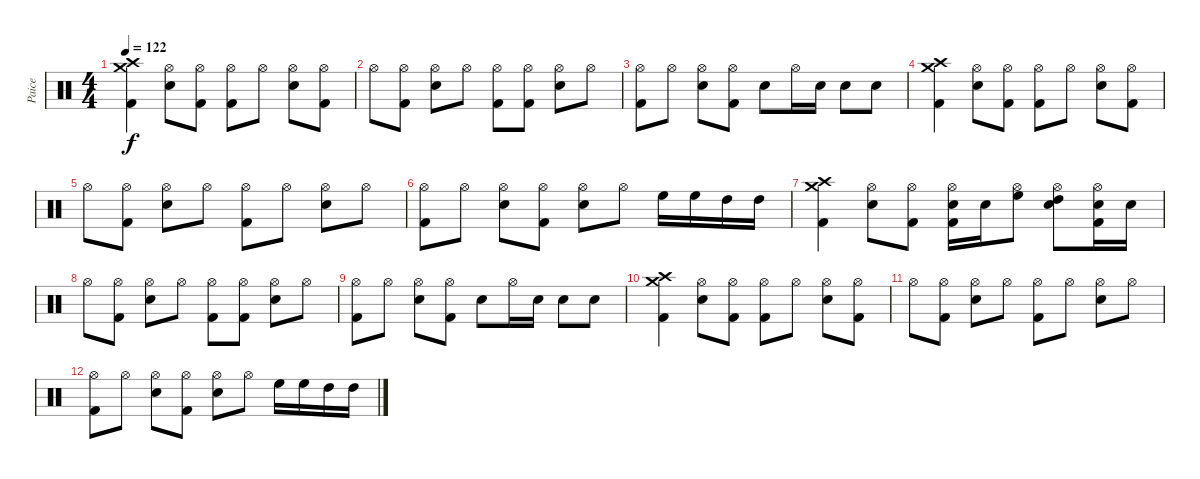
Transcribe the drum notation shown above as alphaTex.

\track ("Paice" "Paice") {instrument percussion}
\staff {score}
\articulation defaults
\ts (4 4)
\tempo 122
\clef neutral
\ks c
("Crash high (hit)" "Crash medium (hit)" "Kick (hit) 2").4{dy f} ("Hi-Hat (open)" "Electric Snare (hit)").8 ("Hi-Hat (open)" "Kick (hit) 2").8 ("Hi-Hat (open)" "Kick (hit) 2").8 "Hi-Hat (open)".8 ("Hi-Hat (open)" "Electric Snare (hit)").8 ("Hi-Hat (open)" "Kick (hit) 2").8 |
"Hi-Hat (open)".8 ("Hi-Hat (open)" "Kick (hit) 2").8 ("Hi-Hat (open)" "Electric Snare (hit)").8 "Hi-Hat (open)".8 ("Hi-Hat (open)" "Kick (hit) 2").8 ("Hi-Hat (open)" "Kick (hit) 2").8 ("Hi-Hat (open)" "Electric Snare (hit)").8 "Hi-Hat (open)".8 |
("Hi-Hat (open)" "Kick (hit) 2").8 "Hi-Hat (open)".8 ("Hi-Hat (open)" "Electric Snare (hit)").8 ("Hi-Hat (open)" "Kick (hit) 2").8 "Electric Snare (hit)".8 "Hi-Hat (open)".16 "Electric Snare (hit)".16 "Electric Snare (hit)".8 "Electric Snare (hit)".8 |
("Crash high (hit)" "Crash medium (hit)" "Kick (hit) 2").4 ("Hi-Hat (open)" "Electric Snare (hit)").8 ("Hi-Hat (open)" "Kick (hit) 2").8 ("Hi-Hat (open)" "Kick (hit) 2").8 "Hi-Hat (open)".8 ("Hi-Hat (open)" "Electric Snare (hit)").8 ("Hi-Hat (open)" "Kick (hit) 2").8 |
"Hi-Hat (open)".8 ("Hi-Hat (open)" "Kick (hit) 2").8 ("Hi-Hat (open)" "Electric Snare (hit)").8 "Hi-Hat (open)".8 ("Hi-Hat (open)" "Kick (hit) 2").8 "Hi-Hat (open)".8 ("Hi-Hat (open)" "Electric Snare (hit)").8 "Hi-Hat (open)".8 |
("Hi-Hat (open)" "Kick (hit) 2").8 "Hi-Hat (open)".8 ("Hi-Hat (open)" "Electric Snare (hit)").8 ("Hi-Hat (open)" "Kick (hit) 2").8 ("Hi-Hat (open)" "Electric Snare (hit)").8 "Hi-Hat (open)".8 "High Floor Tom (hit)".16 "High Floor Tom (hit)".16 "High Tom (hit)".16 "High Tom (hit)".16 |
("Crash high (hit)" "Crash medium (hit)" "Kick (hit) 2").4 ("Hi-Hat (open)" "Electric Snare (hit)").8 ("Hi-Hat (open)" "Kick (hit) 2").8 ("Hi-Hat (open)" "Electric Snare (hit)" "Kick (hit) 2").16 "Electric Snare (hit)".16 ("Hi-Hat (open)" "High Floor Tom (hit)").8 ("Hi-Hat (open)" "High Tom (hit)" "Electric Snare (hit)").8 ("Hi-Hat (open)" "Electric Snare (hit)" "Kick (hit) 2").16 "Electric Snare (hit)".16 |
"Hi-Hat (open)".8 ("Hi-Hat (open)" "Kick (hit) 2").8 ("Hi-Hat (open)" "Electric Snare (hit)").8 "Hi-Hat (open)".8 ("Hi-Hat (open)" "Kick (hit) 2").8 ("Hi-Hat (open)" "Kick (hit) 2").8 ("Hi-Hat (open)" "Electric Snare (hit)").8 "Hi-Hat (open)".8 |
("Hi-Hat (open)" "Kick (hit) 2").8 "Hi-Hat (open)".8 ("Hi-Hat (open)" "Electric Snare (hit)").8 ("Hi-Hat (open)" "Kick (hit) 2").8 "Electric Snare (hit)".8 "Hi-Hat (open)".16 "Electric Snare (hit)".16 "Electric Snare (hit)".8 "Electric Snare (hit)".8 |
("Crash high (hit)" "Crash medium (hit)" "Kick (hit) 2").4 ("Hi-Hat (open)" "Electric Snare (hit)").8 ("Hi-Hat (open)" "Kick (hit) 2").8 ("Hi-Hat (open)" "Kick (hit) 2").8 "Hi-Hat (open)".8 ("Hi-Hat (open)" "Electric Snare (hit)").8 ("Hi-Hat (open)" "Kick (hit) 2").8 |
"Hi-Hat (open)".8 ("Hi-Hat (open)" "Kick (hit) 2").8 ("Hi-Hat (open)" "Electric Snare (hit)").8 "Hi-Hat (open)".8 ("Hi-Hat (open)" "Kick (hit) 2").8 "Hi-Hat (open)".8 ("Hi-Hat (open)" "Electric Snare (hit)").8 "Hi-Hat (open)".8 |
("Hi-Hat (open)" "Kick (hit) 2").8 "Hi-Hat (open)".8 ("Hi-Hat (open)" "Electric Snare (hit)").8 ("Hi-Hat (open)" "Kick (hit) 2").8 ("Hi-Hat (open)" "Electric Snare (hit)").8 "Hi-Hat (open)".8 "High Floor Tom (hit)".16 "High Floor Tom (hit)".16 "High Tom (hit)".16 "High Tom (hit)".16
